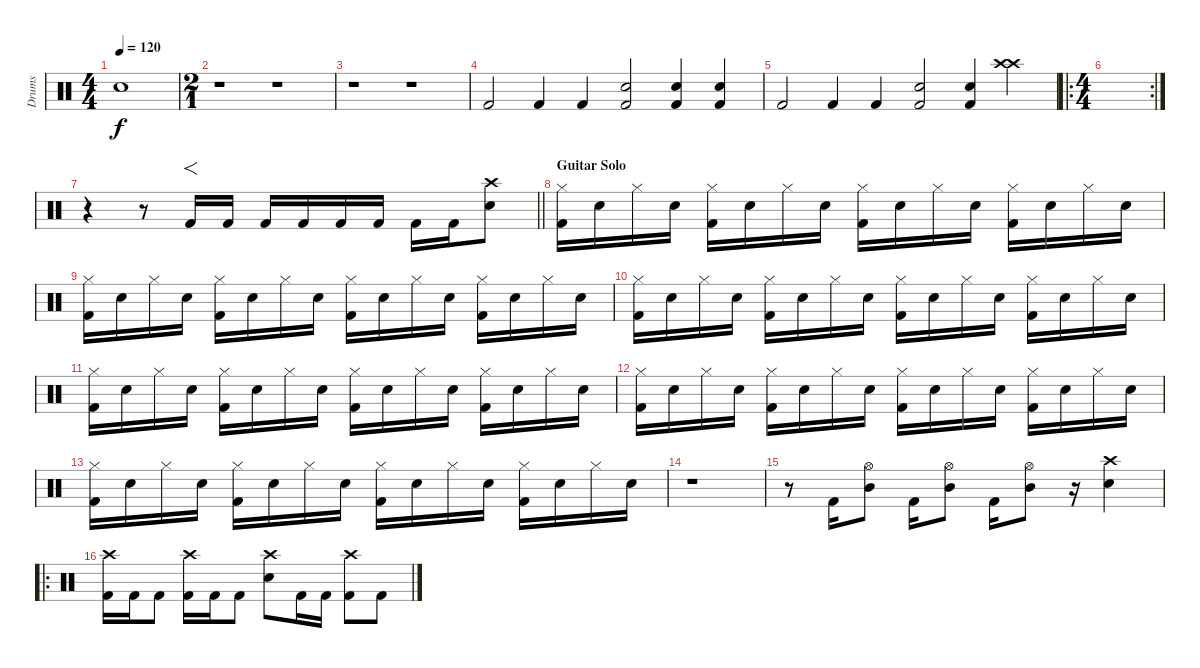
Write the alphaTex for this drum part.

\track ("Drums" "Drums") {instrument percussion}
\staff
\articulation defaults
\ts (4 4)
\tempo 120
\clef neutral
\ks c "Snare (hit)"{t}.1{dy f}
|
\ts (2 1)
r.1 r.1 |
r.1 r.1 |
"Kick (hit) 2".2 "Kick (hit) 2".4 "Kick (hit) 2".4 ("Snare (hit) 2" "Kick (hit) 2").2 ("Snare (hit) 2" "Kick (hit) 2").4 ("Snare (hit) 2" "Kick (hit) 2").4 |
"Kick (hit) 2".2 "Kick (hit) 2".4 "Kick (hit) 2".4 ("Snare (hit) 2" "Kick (hit) 2").2 ("Snare (hit) 2" "Kick (hit) 2").4 ("Crash high (hit)" "Crash high (hit)").4 |
\ro
\rc 2
\ts (4 4)
|
\barLineRight lightlight
r.4 r.8 "Kick (hit) 2".16{f} "Kick (hit) 2".16 "Kick (hit) 2".16 "Kick (hit) 2".16 "Kick (hit) 2".16 "Kick (hit) 2".16 "Kick (hit) 2".16 "Kick (hit) 2".16 ("Crash high (hit)" "Electric Snare (hit)").8 |
\section ("" "Guitar Solo")
("Hi-Hat (closed)" "Kick (hit) 2").16 "Snare (hit) 2".16 "Hi-Hat (closed)".16 "Snare (hit) 2".16 ("Hi-Hat (closed)" "Kick (hit) 2").16 "Snare (hit) 2".16 "Hi-Hat (closed)".16 "Snare (hit) 2".16 ("Hi-Hat (closed)" "Kick (hit) 2").16 "Snare (hit) 2".16 "Hi-Hat (closed)".16 "Snare (hit) 2".16 ("Hi-Hat (closed)" "Kick (hit) 2").16 "Snare (hit) 2".16 "Hi-Hat (closed)".16 "Snare (hit) 2".16 |
("Hi-Hat (closed)" "Kick (hit) 2").16 "Snare (hit) 2".16 "Hi-Hat (closed)".16 "Snare (hit) 2".16 ("Hi-Hat (closed)" "Kick (hit) 2").16 "Snare (hit) 2".16 "Hi-Hat (closed)".16 "Snare (hit) 2".16 ("Hi-Hat (closed)" "Kick (hit) 2").16 "Snare (hit) 2".16 "Hi-Hat (closed)".16 "Snare (hit) 2".16 ("Hi-Hat (closed)" "Kick (hit) 2").16 "Snare (hit) 2".16 "Hi-Hat (closed)".16 "Snare (hit) 2".16 |
("Hi-Hat (closed)" "Kick (hit) 2").16 "Snare (hit) 2".16 "Hi-Hat (closed)".16 "Snare (hit) 2".16 ("Hi-Hat (closed)" "Kick (hit) 2").16 "Snare (hit) 2".16 "Hi-Hat (closed)".16 "Snare (hit) 2".16 ("Hi-Hat (closed)" "Kick (hit) 2").16 "Snare (hit) 2".16 "Hi-Hat (closed)".16 "Snare (hit) 2".16 ("Hi-Hat (closed)" "Kick (hit) 2").16 "Snare (hit) 2".16 "Hi-Hat (closed)".16 "Snare (hit) 2".16 |
("Hi-Hat (closed)" "Kick (hit) 2").16 "Snare (hit) 2".16 "Hi-Hat (closed)".16 "Snare (hit) 2".16 ("Hi-Hat (closed)" "Kick (hit) 2").16 "Snare (hit) 2".16 "Hi-Hat (closed)".16 "Snare (hit) 2".16 ("Hi-Hat (closed)" "Kick (hit) 2").16 "Snare (hit) 2".16 "Hi-Hat (closed)".16 "Snare (hit) 2".16 ("Hi-Hat (closed)" "Kick (hit) 2").16 "Snare (hit) 2".16 "Hi-Hat (closed)".16 "Snare (hit) 2".16 |
("Hi-Hat (closed)" "Kick (hit) 2").16 "Snare (hit) 2".16 "Hi-Hat (closed)".16 "Snare (hit) 2".16 ("Hi-Hat (closed)" "Kick (hit) 2").16 "Snare (hit) 2".16 "Hi-Hat (closed)".16 "Snare (hit) 2".16 ("Hi-Hat (closed)" "Kick (hit) 2").16 "Snare (hit) 2".16 "Hi-Hat (closed)".16 "Snare (hit) 2".16 ("Hi-Hat (closed)" "Kick (hit) 2").16 "Snare (hit) 2".16 "Hi-Hat (closed)".16 "Snare (hit) 2".16 |
("Hi-Hat (closed)" "Kick (hit) 2").16 "Snare (hit) 2".16 "Hi-Hat (closed)".16 "Snare (hit) 2".16 ("Hi-Hat (closed)" "Kick (hit) 2").16 "Snare (hit) 2".16 "Hi-Hat (closed)".16 "Snare (hit) 2".16 ("Hi-Hat (closed)" "Kick (hit) 2").16 "Snare (hit) 2".16 "Hi-Hat (closed)".16 "Snare (hit) 2".16 ("Hi-Hat (closed)" "Kick (hit) 2").16 "Snare (hit) 2".16 "Hi-Hat (closed)".16 "Snare (hit) 2".16 |
r.1 |
r.8 "Kick (hit) 2".16 ("Hi-Hat (open)" "Mid Tom (hit)").8 "Kick (hit) 2".16 ("Hi-Hat (open)" "Mid Tom (hit)").8 "Kick (hit) 2".16 ("Hi-Hat (open)" "Mid Tom (hit)").8 r.16 ("Crash high (hit)" "Electric Snare (hit)").4 |
\ro
("Crash high (hit)" "Kick (hit) 2").16 "Kick (hit) 2".16 "Kick (hit) 2".8 ("Crash high (hit)" "Kick (hit) 2").16 "Kick (hit) 2".16 "Kick (hit) 2".8 ("Crash high (hit)" "Electric Snare (hit)").8 "Kick (hit) 2".16 "Kick (hit) 2".16 ("Crash high (hit)" "Kick (hit) 2").8 "Kick (hit) 2".8
